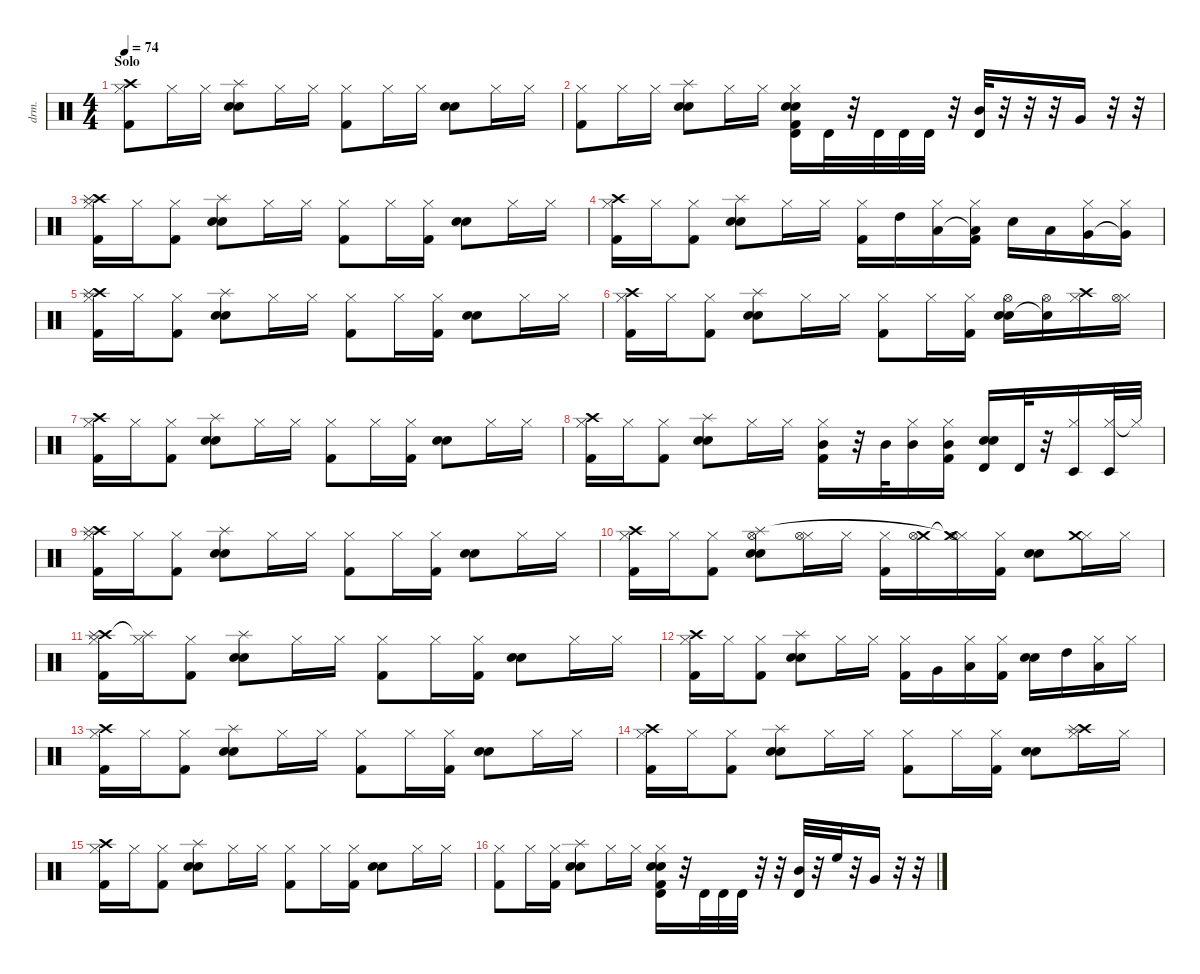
\defaultSystemsLayout 4
\hideDynamics
\bracketExtendMode nobrackets
\otherSystemsTrackNameOrientation horizontal
\track ("Percussion" "drm.") {instrument percussion}
\staff {score}
\articulation defaults
\ts (4 4)
\section ("" "Solo")
\tempo 74
\clef neutral
\ks c
("Hi-Hat (closed)" "Crash high (hit)" "Kick (hit) 2").8{dy f} "Hi-Hat (closed)".16 "Hi-Hat (closed)".16 ("Snare (hit) 2" "Snare (hit) 2" "Splash (hit)").8 "Hi-Hat (closed)".16 "Hi-Hat (closed)".16 ("Hi-Hat (closed)" "Kick (hit) 2").8 "Hi-Hat (closed)".16 "Hi-Hat (closed)".16 ("Snare (hit) 2" "Snare (hit) 2").8 "Hi-Hat (closed)".16 "Hi-Hat (closed)".16 |
("Hi-Hat (closed)" "Kick (hit) 2").8 "Hi-Hat (closed)".16 "Hi-Hat (closed)".16 ("Snare (hit) 2" "Snare (hit) 2" "Splash (hit)").8 "Hi-Hat (closed)".16 "Hi-Hat (closed)".16 ("Hi-Hat (closed)" "Snare (hit) 2" "Timbale high (hit)" "Snare (hit) 2" "Kick (hit) 2").16 "Timbale high (hit)".32 r.32 "Timbale high (hit)".32 "Timbale high (hit)".32 "Timbale high (hit)".32 r.32 ("Mid Tom (hit)" "Timbale high (hit)").32 r.32 r.32 r.32 "Very Low Tom (hit)".16 r.32 r.32 |
("Hi-Hat (closed)" "Crash high (hit)" "Kick (hit) 2" "Splash (hit)").16 "Hi-Hat (closed)".16 ("Hi-Hat (closed)" "Kick (hit) 2").8 ("Snare (hit) 2" "Snare (hit) 2" "Splash (hit)").8 "Hi-Hat (closed)".16 "Hi-Hat (closed)".16 ("Hi-Hat (closed)" "Kick (hit) 2").8 "Hi-Hat (closed)".16 ("Hi-Hat (closed)" "Kick (hit) 2").16 ("Snare (hit) 2" "Snare (hit) 2").8 "Hi-Hat (closed)".16 "Hi-Hat (closed)".16 |
("Hi-Hat (closed)" "Crash high (hit)" "Kick (hit) 2").16 "Hi-Hat (closed)".16 ("Hi-Hat (closed)" "Kick (hit) 2").8 ("Snare (hit) 2" "Snare (hit) 2" "Splash (hit)").8 "Hi-Hat (closed)".16 "Hi-Hat (closed)".16 ("Hi-Hat (closed)" "Kick (hit) 2").16 "High Tom (hit)".16 ("Hi-Hat (closed)" "Low Tom (hit)").16 ("Hi-Hat (closed)" "Low Tom (hit)"{t} "Kick (hit) 2").16 "Snare (hit) 2".16 "Low Tom (hit)".16 ("Hi-Hat (closed)" "Very Low Tom (hit)").16 ("Hi-Hat (closed)" "Very Low Tom (hit)"{t}).16 |
("Hi-Hat (closed)" "Crash high (hit)" "Kick (hit) 2" "Splash (hit)").16 "Hi-Hat (closed)".16 ("Hi-Hat (closed)" "Kick (hit) 2").8 ("Snare (hit) 2" "Snare (hit) 2" "Splash (hit)").8 "Hi-Hat (closed)".16 "Hi-Hat (closed)".16 ("Hi-Hat (closed)" "Kick (hit) 2").8 "Hi-Hat (closed)".16 ("Hi-Hat (closed)" "Kick (hit) 2").16 ("Snare (hit) 2" "Snare (hit) 2").8 "Hi-Hat (closed)".16 "Hi-Hat (closed)".16 |
("Hi-Hat (closed)" "Crash high (hit)" "Kick (hit) 2").16 "Hi-Hat (closed)".16 ("Hi-Hat (closed)" "Kick (hit) 2").8 ("Snare (hit) 2" "Snare (hit) 2" "Splash (hit)").8 "Hi-Hat (closed)".16 "Hi-Hat (closed)".16 ("Hi-Hat (closed)" "Kick (hit) 2").8 "Hi-Hat (closed)".16 ("Hi-Hat (closed)" "Kick (hit) 2").16 ("Snare (hit) 2" "Snare (hit) 2" "Hi-Hat (open)").16 ("Snare (hit) 2"{t} "Hi-Hat (open)").16 ("Hi-Hat (closed)" "Crash high (hit)").16 ("Hi-Hat (closed)" "Hi-Hat (open)").16 |
("Hi-Hat (closed)" "Crash high (hit)" "Kick (hit) 2").16 "Hi-Hat (closed)".16 ("Hi-Hat (closed)" "Kick (hit) 2").8 ("Snare (hit) 2" "Snare (hit) 2" "Splash (hit)").8 "Hi-Hat (closed)".16 "Hi-Hat (closed)".16 ("Hi-Hat (closed)" "Kick (hit) 2").8 "Hi-Hat (closed)".16 ("Hi-Hat (closed)" "Kick (hit) 2").16 ("Snare (hit) 2" "Snare (hit) 2").8 "Hi-Hat (closed)".16 "Hi-Hat (closed)".16 |
("Hi-Hat (closed)" "Crash high (hit)" "Kick (hit) 2").16 "Hi-Hat (closed)".16 ("Hi-Hat (closed)" "Kick (hit) 2").8 ("Snare (hit) 2" "Snare (hit) 2" "Splash (hit)").8 "Hi-Hat (closed)".16 "Hi-Hat (closed)".16 ("Hi-Hat (closed)" "Kick (hit) 2" "Mid Tom (hit)").16 r.32 "Mid Tom (hit)".32 ("Hi-Hat (closed)" "Mid Tom (hit)").16 ("Hi-Hat (closed)" "Kick (hit) 2" "Mid Tom (hit)").16 ("Snare (hit) 2" "Snare (hit) 2" "Timbale high (hit)").16 "Timbale high (hit)".32 r.32 ("Hi-Hat (closed)" "Timbale low (hit)").16 ("Hi-Hat (closed)" "Timbale low (hit)").32 "Hi-Hat (closed)"{t}.32 |
("Hi-Hat (closed)" "Crash high (hit)" "Kick (hit) 2" "Splash (hit)").16 "Hi-Hat (closed)".16 ("Hi-Hat (closed)" "Kick (hit) 2").8 ("Snare (hit) 2" "Snare (hit) 2" "Splash (hit)").8 "Hi-Hat (closed)".16 "Hi-Hat (closed)".16 ("Hi-Hat (closed)" "Kick (hit) 2").8 "Hi-Hat (closed)".16 ("Hi-Hat (closed)" "Kick (hit) 2").16 ("Snare (hit) 2" "Snare (hit) 2").8 "Hi-Hat (closed)".16 "Hi-Hat (closed)".16 |
("Hi-Hat (closed)" "Crash high (hit)" "Kick (hit) 2").16 "Hi-Hat (closed)".16 ("Hi-Hat (closed)" "Kick (hit) 2").8 ("Snare (hit) 2" "Snare (hit) 2" "Splash (hit)" "Hi-Hat (open)").8 ("Hi-Hat (closed)" "Hi-Hat (open)").16 "Hi-Hat (closed)".16 ("Hi-Hat (closed)" "Kick (hit) 2").16 ("Crash medium (hit)" "Hi-Hat (open)").16 ("Hi-Hat (closed)" "Crash medium (hit)"{t} "Hi-Hat (open)"{t}).16 ("Hi-Hat (closed)" "Kick (hit) 2").16 ("Snare (hit) 2" "Snare (hit) 2").8 ("Hi-Hat (closed)" "Crash medium (hit)").16 "Hi-Hat (closed)".16 |
("Hi-Hat (closed)" "Crash high (hit)" "Kick (hit) 2" "Splash (hit)").16 ("Hi-Hat (closed)" "Splash (hit)"{t}).16 ("Hi-Hat (closed)" "Kick (hit) 2").8 ("Snare (hit) 2" "Snare (hit) 2" "Splash (hit)").8 "Hi-Hat (closed)".16 "Hi-Hat (closed)".16 ("Hi-Hat (closed)" "Kick (hit) 2").8 "Hi-Hat (closed)".16 ("Hi-Hat (closed)" "Kick (hit) 2").16 ("Snare (hit) 2" "Snare (hit) 2").8 "Hi-Hat (closed)".16 "Hi-Hat (closed)".16 |
("Hi-Hat (closed)" "Crash high (hit)" "Kick (hit) 2").16 "Hi-Hat (closed)".16 ("Hi-Hat (closed)" "Kick (hit) 2").8 ("Snare (hit) 2" "Snare (hit) 2" "Splash (hit)").8 "Hi-Hat (closed)".16 "Hi-Hat (closed)".16 ("Hi-Hat (closed)" "Kick (hit) 2").16 "Very Low Tom (hit)".16{dy fff} ("Hi-Hat (closed)" "Low Tom (hit)").16{dy f} ("Hi-Hat (closed)" "Kick (hit) 2").16 ("Snare (hit) 2" "Snare (hit) 2").16 "High Tom (hit)".16{dy fff} ("Hi-Hat (closed)" "Low Floor Tom (hit)").16{dy f} "Hi-Hat (closed)".16 |
("Hi-Hat (closed)" "Crash high (hit)" "Kick (hit) 2").16 "Hi-Hat (closed)".16 ("Hi-Hat (closed)" "Kick (hit) 2").8 ("Snare (hit) 2" "Snare (hit) 2" "Splash (hit)").8 "Hi-Hat (closed)".16 "Hi-Hat (closed)".16 ("Hi-Hat (closed)" "Kick (hit) 2").8 "Hi-Hat (closed)".16 ("Hi-Hat (closed)" "Kick (hit) 2").16 ("Snare (hit) 2" "Snare (hit) 2").8 "Hi-Hat (closed)".16 "Hi-Hat (closed)".16 |
("Hi-Hat (closed)" "Crash high (hit)" "Kick (hit) 2").16 "Hi-Hat (closed)".16 ("Hi-Hat (closed)" "Kick (hit) 2").8 ("Snare (hit) 2" "Snare (hit) 2" "Splash (hit)").8 "Hi-Hat (closed)".16 "Hi-Hat (closed)".16 ("Hi-Hat (closed)" "Kick (hit) 2").8 "Hi-Hat (closed)".16 ("Hi-Hat (closed)" "Kick (hit) 2").16 ("Snare (hit) 2" "Snare (hit) 2").8 ("Hi-Hat (closed)" "Crash high (hit)" "Splash (hit)").16 "Hi-Hat (closed)".16 |
("Hi-Hat (closed)" "Crash high (hit)" "Kick (hit) 2").16 "Hi-Hat (closed)".16 ("Hi-Hat (closed)" "Kick (hit) 2").8 ("Snare (hit) 2" "Snare (hit) 2" "Splash (hit)").8 "Hi-Hat (closed)".16 "Hi-Hat (closed)".16 ("Hi-Hat (closed)" "Kick (hit) 2").8 "Hi-Hat (closed)".16 ("Hi-Hat (closed)" "Kick (hit) 2").16 ("Snare (hit) 2" "Snare (hit) 2").8 "Hi-Hat (closed)".16 "Hi-Hat (closed)".16 |
("Hi-Hat (closed)" "Kick (hit) 2").8 "Hi-Hat (closed)".16 ("Hi-Hat (closed)" "Kick (hit) 2").16 ("Snare (hit) 2" "Snare (hit) 2" "Splash (hit)").8 "Hi-Hat (closed)".16 "Hi-Hat (closed)".16 ("Hi-Hat (closed)" "Snare (hit) 2" "Timbale high (hit)" "Snare (hit) 2" "Kick (hit) 2").16 r.32 "Timbale high (hit)".32 "Timbale high (hit)".32 "Timbale high (hit)".32 r.32 r.32 ("Mid Tom (hit)" "Timbale high (hit)").32 r.32 "High Floor Tom (hit)".32 r.32 "Very Low Tom (hit)".16 r.32 r.32
